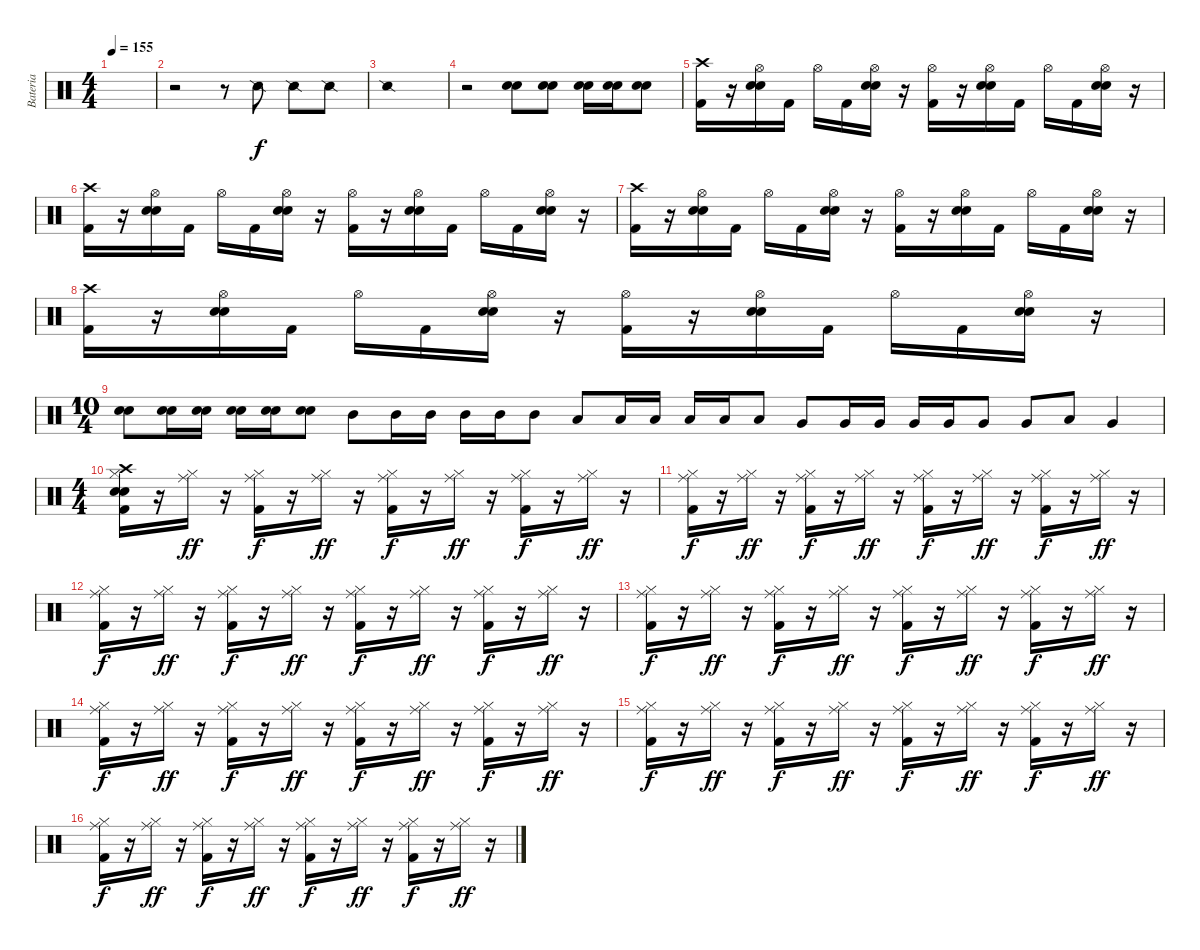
\track ("Bateria" "Bateria") {instrument percussion}
\staff {score}
\articulation defaults
\ts (4 4)
\tempo 155
\clef neutral
\ks c
|
r.2 r.8 "Snare (side stick) 2".8 "Snare (side stick) 2".8 "Snare (side stick) 2".8 |
"Snare (side stick) 2".1 |
r.2 ("Electric Snare (hit)" "Snare (hit) 2").8 ("Electric Snare (hit)" "Snare (hit) 2").8 ("Electric Snare (hit)" "Snare (hit) 2").16 ("Electric Snare (hit)" "Snare (hit) 2").16 ("Electric Snare (hit)" "Snare (hit) 2").8 |
("Crash high (hit)" "Kick (hit) 2").16 r.16 ("Hi-Hat (open)" "Snare (hit) 2" "Electric Snare (hit)").16 "Kick (hit) 2".16 "Hi-Hat (open)".16 "Kick (hit) 2".16 ("Hi-Hat (open)" "Snare (hit) 2" "Electric Snare (hit)").16 r.16 ("Hi-Hat (open)" "Kick (hit) 2").16 r.16 ("Hi-Hat (open)" "Snare (hit) 2" "Electric Snare (hit)").16 "Kick (hit) 2".16 "Hi-Hat (open)".16 "Kick (hit) 2".16 ("Hi-Hat (open)" "Snare (hit) 2" "Electric Snare (hit)").16 r.16 |
("Crash high (hit)" "Kick (hit) 2").16 r.16 ("Hi-Hat (open)" "Snare (hit) 2" "Electric Snare (hit)").16 "Kick (hit) 2".16 "Hi-Hat (open)".16 "Kick (hit) 2".16 ("Hi-Hat (open)" "Snare (hit) 2" "Electric Snare (hit)").16 r.16 ("Hi-Hat (open)" "Kick (hit) 2").16 r.16 ("Hi-Hat (open)" "Snare (hit) 2" "Electric Snare (hit)").16 "Kick (hit) 2".16 "Hi-Hat (open)".16 "Kick (hit) 2".16 ("Hi-Hat (open)" "Snare (hit) 2" "Electric Snare (hit)").16 r.16 |
("Crash high (hit)" "Kick (hit) 2").16 r.16 ("Hi-Hat (open)" "Snare (hit) 2" "Electric Snare (hit)").16 "Kick (hit) 2".16 "Hi-Hat (open)".16 "Kick (hit) 2".16 ("Hi-Hat (open)" "Snare (hit) 2" "Electric Snare (hit)").16 r.16 ("Hi-Hat (open)" "Kick (hit) 2").16 r.16 ("Hi-Hat (open)" "Snare (hit) 2" "Electric Snare (hit)").16 "Kick (hit) 2".16 "Hi-Hat (open)".16 "Kick (hit) 2".16 ("Hi-Hat (open)" "Snare (hit) 2" "Electric Snare (hit)").16 r.16 |
("Crash high (hit)" "Kick (hit) 2").16 r.16 ("Hi-Hat (open)" "Snare (hit) 2" "Electric Snare (hit)").16 "Kick (hit) 2".16 "Hi-Hat (open)".16 "Kick (hit) 2".16 ("Hi-Hat (open)" "Snare (hit) 2" "Electric Snare (hit)").16 r.16 ("Hi-Hat (open)" "Kick (hit) 2").16 r.16 ("Hi-Hat (open)" "Snare (hit) 2" "Electric Snare (hit)").16 "Kick (hit) 2".16 "Hi-Hat (open)".16 "Kick (hit) 2".16 ("Hi-Hat (open)" "Snare (hit) 2" "Electric Snare (hit)").16 r.16 |
\ts (10 4)
("Electric Snare (hit)" "Snare (hit) 2").8 ("Electric Snare (hit)" "Snare (hit) 2").16 ("Electric Snare (hit)" "Snare (hit) 2").16 ("Electric Snare (hit)" "Snare (hit) 2").16 ("Electric Snare (hit)" "Snare (hit) 2").16 ("Electric Snare (hit)" "Snare (hit) 2").8 "Mid Tom (hit)".8 "Mid Tom (hit)".16 "Mid Tom (hit)".16 "Mid Tom (hit)".16 "Mid Tom (hit)".16 "Mid Tom (hit)".8 "Low Tom (hit)".8 "Low Tom (hit)".16 "Low Tom (hit)".16 "Low Tom (hit)".16 "Low Tom (hit)".16 "Low Tom (hit)".8 "Very Low Tom (hit)".8 "Very Low Tom (hit)".16 "Very Low Tom (hit)".16 "Very Low Tom (hit)".16 "Very Low Tom (hit)".16 "Very Low Tom (hit)".8 "Very Low Tom (hit)".8 "Low Floor Tom (hit)".8 "Very Low Tom (hit)".4 |
\ts (4 4)
("Crash high (hit)" "Hi-Hat (closed)" "Snare (hit) 2" "Electric Snare (hit)" "Kick (hit) 2").16 r.16 ("Ride (middle)" "Hi-Hat (closed)").16{dy ff} r.16 ("Ride (middle)" "Hi-Hat (closed)" "Kick (hit) 2").16{dy f} r.16 ("Ride (middle)" "Hi-Hat (closed)").16{dy ff} r.16 ("Ride (middle)" "Hi-Hat (closed)" "Kick (hit) 2").16{dy f} r.16 ("Ride (middle)" "Hi-Hat (closed)").16{dy ff} r.16 ("Ride (middle)" "Hi-Hat (closed)" "Kick (hit) 2").16{dy f} r.16 ("Ride (middle)" "Hi-Hat (closed)").16{dy ff} r.16 |
("Ride (middle)" "Hi-Hat (closed)" "Kick (hit) 2").16{dy f} r.16 ("Ride (middle)" "Hi-Hat (closed)").16{dy ff} r.16 ("Ride (middle)" "Hi-Hat (closed)" "Kick (hit) 2").16{dy f} r.16 ("Ride (middle)" "Hi-Hat (closed)").16{dy ff} r.16 ("Ride (middle)" "Hi-Hat (closed)" "Kick (hit) 2").16{dy f} r.16 ("Ride (middle)" "Hi-Hat (closed)").16{dy ff} r.16 ("Ride (middle)" "Hi-Hat (closed)" "Kick (hit) 2").16{dy f} r.16 ("Ride (middle)" "Hi-Hat (closed)").16{dy ff} r.16 |
("Ride (middle)" "Hi-Hat (closed)" "Kick (hit) 2").16{dy f} r.16 ("Ride (middle)" "Hi-Hat (closed)").16{dy ff} r.16 ("Ride (middle)" "Hi-Hat (closed)" "Kick (hit) 2").16{dy f} r.16 ("Ride (middle)" "Hi-Hat (closed)").16{dy ff} r.16 ("Ride (middle)" "Hi-Hat (closed)" "Kick (hit) 2").16{dy f} r.16 ("Ride (middle)" "Hi-Hat (closed)").16{dy ff} r.16 ("Ride (middle)" "Hi-Hat (closed)" "Kick (hit) 2").16{dy f} r.16 ("Ride (middle)" "Hi-Hat (closed)").16{dy ff} r.16 |
("Ride (middle)" "Hi-Hat (closed)" "Kick (hit) 2").16{dy f} r.16 ("Ride (middle)" "Hi-Hat (closed)").16{dy ff} r.16 ("Ride (middle)" "Hi-Hat (closed)" "Kick (hit) 2").16{dy f} r.16 ("Ride (middle)" "Hi-Hat (closed)").16{dy ff} r.16 ("Ride (middle)" "Hi-Hat (closed)" "Kick (hit) 2").16{dy f} r.16 ("Ride (middle)" "Hi-Hat (closed)").16{dy ff} r.16 ("Ride (middle)" "Hi-Hat (closed)" "Kick (hit) 2").16{dy f} r.16 ("Ride (middle)" "Hi-Hat (closed)").16{dy ff} r.16 |
("Ride (middle)" "Hi-Hat (closed)" "Kick (hit) 2").16{dy f} r.16 ("Ride (middle)" "Hi-Hat (closed)").16{dy ff} r.16 ("Ride (middle)" "Hi-Hat (closed)" "Kick (hit) 2").16{dy f} r.16 ("Ride (middle)" "Hi-Hat (closed)").16{dy ff} r.16 ("Ride (middle)" "Hi-Hat (closed)" "Kick (hit) 2").16{dy f} r.16 ("Ride (middle)" "Hi-Hat (closed)").16{dy ff} r.16 ("Ride (middle)" "Hi-Hat (closed)" "Kick (hit) 2").16{dy f} r.16 ("Ride (middle)" "Hi-Hat (closed)").16{dy ff} r.16 |
("Ride (middle)" "Hi-Hat (closed)" "Kick (hit) 2").16{dy f} r.16 ("Ride (middle)" "Hi-Hat (closed)").16{dy ff} r.16 ("Ride (middle)" "Hi-Hat (closed)" "Kick (hit) 2").16{dy f} r.16 ("Ride (middle)" "Hi-Hat (closed)").16{dy ff} r.16 ("Ride (middle)" "Hi-Hat (closed)" "Kick (hit) 2").16{dy f} r.16 ("Ride (middle)" "Hi-Hat (closed)").16{dy ff} r.16 ("Ride (middle)" "Hi-Hat (closed)" "Kick (hit) 2").16{dy f} r.16 ("Ride (middle)" "Hi-Hat (closed)").16{dy ff} r.16 |
("Ride (middle)" "Hi-Hat (closed)" "Kick (hit) 2").16{dy f} r.16 ("Ride (middle)" "Hi-Hat (closed)").16{dy ff} r.16 ("Ride (middle)" "Hi-Hat (closed)" "Kick (hit) 2").16{dy f} r.16 ("Ride (middle)" "Hi-Hat (closed)").16{dy ff} r.16 ("Ride (middle)" "Hi-Hat (closed)" "Kick (hit) 2").16{dy f} r.16 ("Ride (middle)" "Hi-Hat (closed)").16{dy ff} r.16 ("Ride (middle)" "Hi-Hat (closed)" "Kick (hit) 2").16{dy f} r.16 ("Ride (middle)" "Hi-Hat (closed)").16{dy ff} r.16
